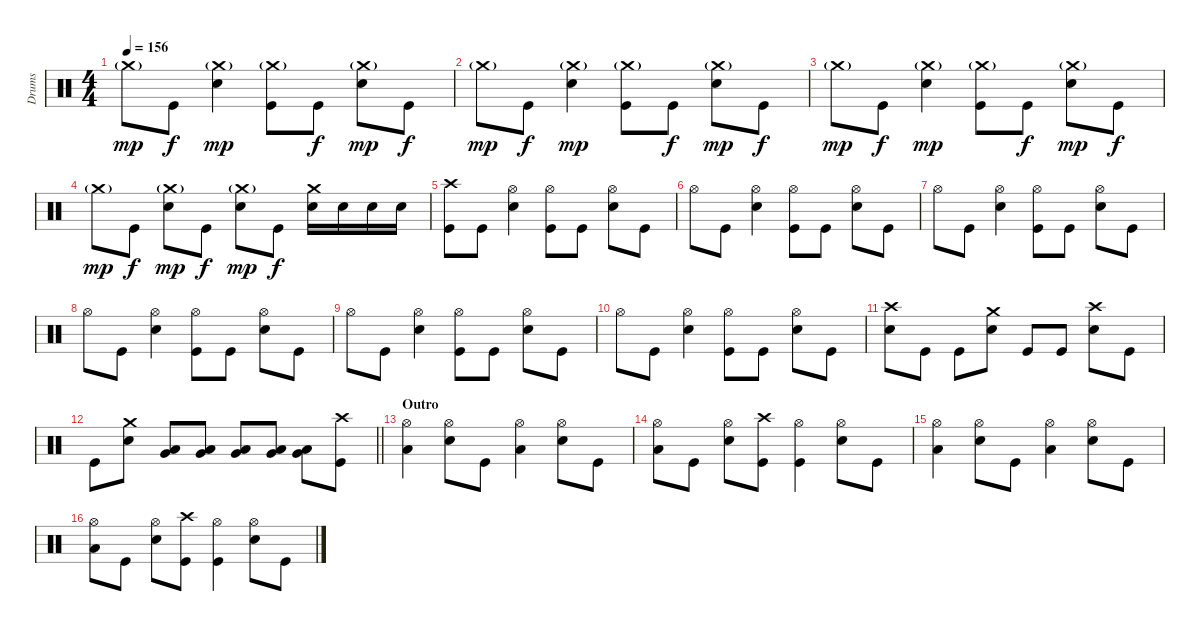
\track ("Drums" "Drums") {instrument percussion}
\staff {score}
\articulation defaults
\ts (4 4)
\tempo 156
\clef neutral
\ks c "Crash medium (hit)"{g}.8{dy mp} "Kick (hit)".8{dy f}
("Crash medium (hit)"{g} "Snare (hit) 2").4{dy mp} ("Crash medium (hit)"{g} "Kick (hit)").8 "Kick (hit)".8{dy f} ("Crash medium (hit)"{g} "Snare (hit) 2").8{dy mp} "Kick (hit)".8{dy f} |
"Crash medium (hit)"{g}.8{dy mp} "Kick (hit)".8{dy f} ("Crash medium (hit)"{g} "Snare (hit) 2").4{dy mp} ("Crash medium (hit)"{g} "Kick (hit)").8 "Kick (hit)".8{dy f} ("Crash medium (hit)"{g} "Snare (hit) 2").8{dy mp} "Kick (hit)".8{dy f} |
"Crash medium (hit)"{g}.8{dy mp} "Kick (hit)".8{dy f} ("Crash medium (hit)"{g} "Snare (hit) 2").4{dy mp} ("Crash medium (hit)"{g} "Kick (hit)").8 "Kick (hit)".8{dy f} ("Crash medium (hit)"{g} "Snare (hit) 2").8{dy mp} "Kick (hit)".8{dy f} |
"Crash medium (hit)"{g}.8{dy mp} "Kick (hit)".8{dy f} ("Crash medium (hit)"{g} "Snare (hit) 2").8{dy mp} "Kick (hit)".8{dy f} ("Crash medium (hit)"{g} "Snare (hit) 2").8{dy mp} "Kick (hit)".8{dy f} ("Crash medium (hit)" "Snare (hit) 2").16 "Snare (hit) 2".16 "Snare (hit) 2".16 "Snare (hit) 2".16 |
("Crash high (hit)" "Kick (hit)").8 "Kick (hit)".8 ("Hi-Hat (open)" "Snare (hit) 2").4 ("Hi-Hat (open)" "Kick (hit)").8 "Kick (hit)".8 ("Hi-Hat (open)" "Snare (hit) 2").8 "Kick (hit)".8 |
"Hi-Hat (open)".8 "Kick (hit)".8 ("Hi-Hat (open)" "Snare (hit) 2").4 ("Hi-Hat (open)" "Kick (hit)").8 "Kick (hit)".8 ("Hi-Hat (open)" "Snare (hit) 2").8 "Kick (hit)".8 |
"Hi-Hat (open)".8 "Kick (hit)".8 ("Hi-Hat (open)" "Snare (hit) 2").4 ("Hi-Hat (open)" "Kick (hit)").8 "Kick (hit)".8 ("Hi-Hat (open)" "Snare (hit) 2").8 "Kick (hit)".8 |
"Hi-Hat (open)".8 "Kick (hit)".8 ("Hi-Hat (open)" "Snare (hit) 2").4 ("Hi-Hat (open)" "Kick (hit)").8 "Kick (hit)".8 ("Hi-Hat (open)" "Snare (hit) 2").8 "Kick (hit)".8 |
"Hi-Hat (open)".8 "Kick (hit)".8 ("Hi-Hat (open)" "Snare (hit) 2").4 ("Hi-Hat (open)" "Kick (hit)").8 "Kick (hit)".8 ("Hi-Hat (open)" "Snare (hit) 2").8 "Kick (hit)".8 |
"Hi-Hat (open)".8 "Kick (hit)".8 ("Hi-Hat (open)" "Snare (hit) 2").4 ("Hi-Hat (open)" "Kick (hit)").8 "Kick (hit)".8 ("Hi-Hat (open)" "Snare (hit) 2").8 "Kick (hit)".8 |
("Crash high (hit)" "Snare (hit) 2").8 "Kick (hit)".8 "Kick (hit)".8 ("Crash medium (hit)" "Snare (hit) 2").8 "Kick (hit)".8 "Kick (hit)".8 ("Crash high (hit)" "Snare (hit) 2").8 "Kick (hit)".8 |
\barLineRight lightlight "Kick (hit)".8
("Crash medium (hit)" "Snare (hit) 2").8 ("Low Tom (hit)" "Very Low Tom (hit)").8 ("Low Tom (hit)" "Very Low Tom (hit)").8 ("Low Tom (hit)" "Very Low Tom (hit)").8 ("Low Tom (hit)" "Very Low Tom (hit)").8 ("Low Tom (hit)" "Very Low Tom (hit)").8 ("Crash high (hit)" "Kick (hit)").8 |
\section ("" "Outro")
("Hi-Hat (open)" "Low Tom (hit)").4 ("Hi-Hat (open)" "Snare (hit) 2").8 "Kick (hit)".8 ("Hi-Hat (open)" "Low Tom (hit)").4 ("Hi-Hat (open)" "Snare (hit) 2").8 "Kick (hit)".8 |
("Hi-Hat (open)" "Low Tom (hit)").8 "Kick (hit)".8 ("Hi-Hat (open)" "Snare (hit) 2").8 ("Crash high (hit)" "Kick (hit)").8 ("Hi-Hat (open)" "Kick (hit)").4 ("Hi-Hat (open)" "Snare (hit) 2").8 "Kick (hit)".8 |
("Hi-Hat (open)" "Low Tom (hit)").4 ("Hi-Hat (open)" "Snare (hit) 2").8 "Kick (hit)".8 ("Hi-Hat (open)" "Low Tom (hit)").4 ("Hi-Hat (open)" "Snare (hit) 2").8 "Kick (hit)".8 |
("Hi-Hat (open)" "Low Tom (hit)").8 "Kick (hit)".8 ("Hi-Hat (open)" "Snare (hit) 2").8 ("Crash high (hit)" "Kick (hit)").8 ("Hi-Hat (open)" "Kick (hit)").4 ("Hi-Hat (open)" "Snare (hit) 2").8 "Kick (hit)".8
